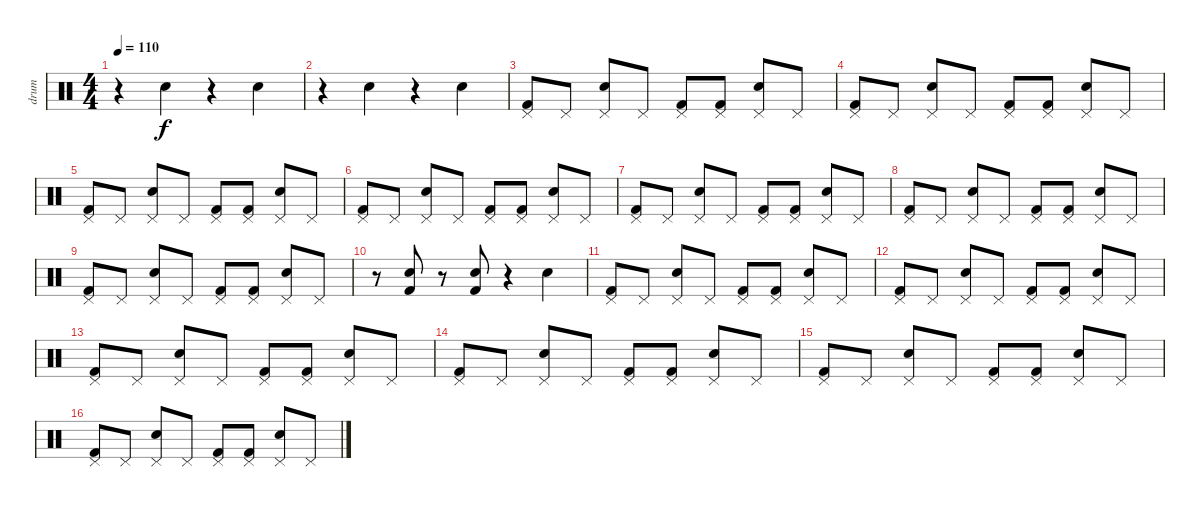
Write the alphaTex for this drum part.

\track ("drum" "drum") {instrument percussion}
\staff {score}
\articulation defaults
\ts (4 4)
\tempo 110
\clef neutral
\ks c
r.4{dy f} "Snare (hit)".4 r.4 "Snare (hit)".4 |
r.4 "Snare (hit)".4 r.4 "Snare (hit)".4 |
("Pedal Hi-Hat (hit)" "Kick (hit) 2").8 "Pedal Hi-Hat (hit)".8 ("Pedal Hi-Hat (hit)" "Electric Snare (hit)").8 "Pedal Hi-Hat (hit)".8 ("Pedal Hi-Hat (hit)" "Kick (hit) 2").8 ("Pedal Hi-Hat (hit)" "Kick (hit) 2").8 ("Pedal Hi-Hat (hit)" "Electric Snare (hit)").8 "Pedal Hi-Hat (hit)".8 |
("Pedal Hi-Hat (hit)" "Kick (hit) 2").8 "Pedal Hi-Hat (hit)".8 ("Pedal Hi-Hat (hit)" "Electric Snare (hit)").8 "Pedal Hi-Hat (hit)".8 ("Pedal Hi-Hat (hit)" "Kick (hit) 2").8 ("Pedal Hi-Hat (hit)" "Kick (hit) 2").8 ("Pedal Hi-Hat (hit)" "Electric Snare (hit)").8 "Pedal Hi-Hat (hit)".8 |
("Pedal Hi-Hat (hit)" "Kick (hit) 2").8 "Pedal Hi-Hat (hit)".8 ("Pedal Hi-Hat (hit)" "Electric Snare (hit)").8 "Pedal Hi-Hat (hit)".8 ("Pedal Hi-Hat (hit)" "Kick (hit) 2").8 ("Pedal Hi-Hat (hit)" "Kick (hit) 2").8 ("Pedal Hi-Hat (hit)" "Electric Snare (hit)").8 "Pedal Hi-Hat (hit)".8 |
("Pedal Hi-Hat (hit)" "Kick (hit) 2").8 "Pedal Hi-Hat (hit)".8 ("Pedal Hi-Hat (hit)" "Electric Snare (hit)").8 "Pedal Hi-Hat (hit)".8 ("Pedal Hi-Hat (hit)" "Kick (hit) 2").8 ("Pedal Hi-Hat (hit)" "Kick (hit) 2").8 ("Pedal Hi-Hat (hit)" "Electric Snare (hit)").8 "Pedal Hi-Hat (hit)".8 |
("Pedal Hi-Hat (hit)" "Kick (hit) 2").8 "Pedal Hi-Hat (hit)".8 ("Pedal Hi-Hat (hit)" "Electric Snare (hit)").8 "Pedal Hi-Hat (hit)".8 ("Pedal Hi-Hat (hit)" "Kick (hit) 2").8 ("Pedal Hi-Hat (hit)" "Kick (hit) 2").8 ("Pedal Hi-Hat (hit)" "Electric Snare (hit)").8 "Pedal Hi-Hat (hit)".8 |
("Pedal Hi-Hat (hit)" "Kick (hit) 2").8 "Pedal Hi-Hat (hit)".8 ("Pedal Hi-Hat (hit)" "Electric Snare (hit)").8 "Pedal Hi-Hat (hit)".8 ("Pedal Hi-Hat (hit)" "Kick (hit) 2").8 ("Pedal Hi-Hat (hit)" "Kick (hit) 2").8 ("Pedal Hi-Hat (hit)" "Electric Snare (hit)").8 "Pedal Hi-Hat (hit)".8 |
("Pedal Hi-Hat (hit)" "Kick (hit) 2").8 "Pedal Hi-Hat (hit)".8 ("Pedal Hi-Hat (hit)" "Electric Snare (hit)").8 "Pedal Hi-Hat (hit)".8 ("Pedal Hi-Hat (hit)" "Kick (hit) 2").8 ("Pedal Hi-Hat (hit)" "Kick (hit) 2").8 ("Pedal Hi-Hat (hit)" "Electric Snare (hit)").8 "Pedal Hi-Hat (hit)".8 |
r.8 ("Kick (hit) 2" "Electric Snare (hit)").8 r.8 ("Kick (hit) 2" "Electric Snare (hit)").8 r.4 "Electric Snare (hit)".4 |
("Pedal Hi-Hat (hit)" "Kick (hit) 2").8 "Pedal Hi-Hat (hit)".8 ("Pedal Hi-Hat (hit)" "Electric Snare (hit)").8 "Pedal Hi-Hat (hit)".8 ("Pedal Hi-Hat (hit)" "Kick (hit) 2").8 ("Pedal Hi-Hat (hit)" "Kick (hit) 2").8 ("Pedal Hi-Hat (hit)" "Electric Snare (hit)").8 "Pedal Hi-Hat (hit)".8 |
("Pedal Hi-Hat (hit)" "Kick (hit) 2").8 "Pedal Hi-Hat (hit)".8 ("Pedal Hi-Hat (hit)" "Electric Snare (hit)").8 "Pedal Hi-Hat (hit)".8 ("Pedal Hi-Hat (hit)" "Kick (hit) 2").8 ("Pedal Hi-Hat (hit)" "Kick (hit) 2").8 ("Pedal Hi-Hat (hit)" "Electric Snare (hit)").8 "Pedal Hi-Hat (hit)".8 |
("Pedal Hi-Hat (hit)" "Kick (hit) 2").8 "Pedal Hi-Hat (hit)".8 ("Pedal Hi-Hat (hit)" "Electric Snare (hit)").8 "Pedal Hi-Hat (hit)".8 ("Pedal Hi-Hat (hit)" "Kick (hit) 2").8 ("Pedal Hi-Hat (hit)" "Kick (hit) 2").8 ("Pedal Hi-Hat (hit)" "Electric Snare (hit)").8 "Pedal Hi-Hat (hit)".8 |
("Pedal Hi-Hat (hit)" "Kick (hit) 2").8 "Pedal Hi-Hat (hit)".8 ("Pedal Hi-Hat (hit)" "Electric Snare (hit)").8 "Pedal Hi-Hat (hit)".8 ("Pedal Hi-Hat (hit)" "Kick (hit) 2").8 ("Pedal Hi-Hat (hit)" "Kick (hit) 2").8 ("Pedal Hi-Hat (hit)" "Electric Snare (hit)").8 "Pedal Hi-Hat (hit)".8 |
("Pedal Hi-Hat (hit)" "Kick (hit) 2").8 "Pedal Hi-Hat (hit)".8 ("Pedal Hi-Hat (hit)" "Electric Snare (hit)").8 "Pedal Hi-Hat (hit)".8 ("Pedal Hi-Hat (hit)" "Kick (hit) 2").8 ("Pedal Hi-Hat (hit)" "Kick (hit) 2").8 ("Pedal Hi-Hat (hit)" "Electric Snare (hit)").8 "Pedal Hi-Hat (hit)".8 |
("Pedal Hi-Hat (hit)" "Kick (hit) 2").8 "Pedal Hi-Hat (hit)".8 ("Pedal Hi-Hat (hit)" "Electric Snare (hit)").8 "Pedal Hi-Hat (hit)".8 ("Pedal Hi-Hat (hit)" "Kick (hit) 2").8 ("Pedal Hi-Hat (hit)" "Kick (hit) 2").8 ("Pedal Hi-Hat (hit)" "Electric Snare (hit)").8 "Pedal Hi-Hat (hit)".8
